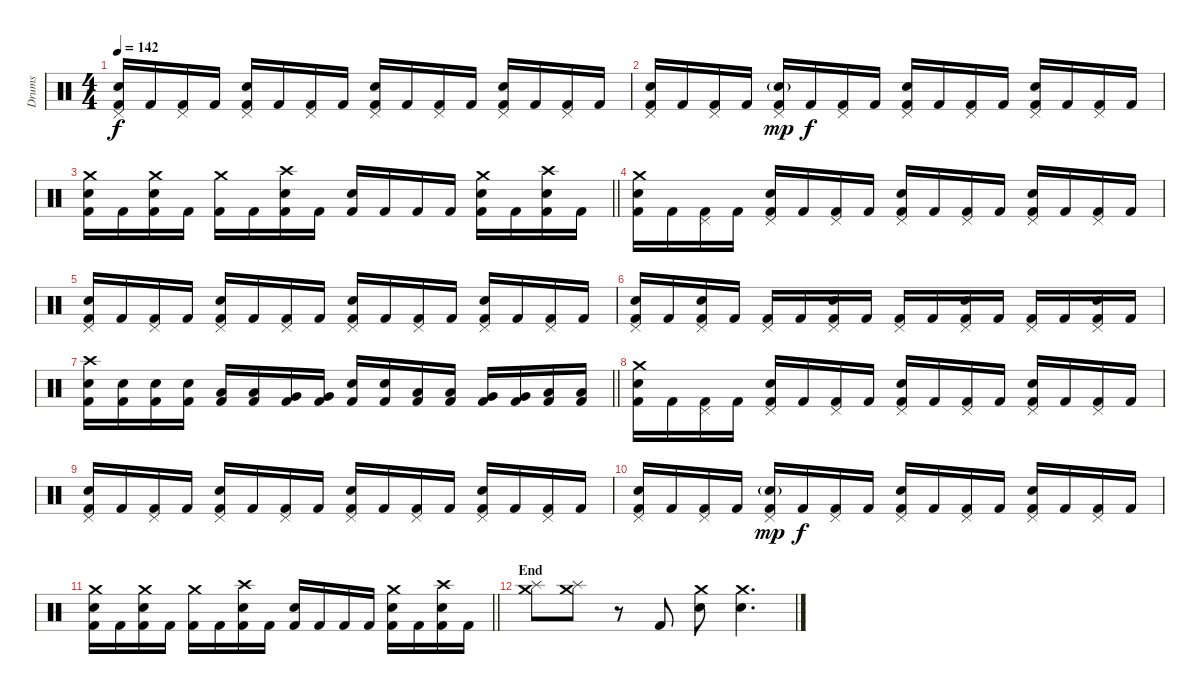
\track ("Drums" "Drums") {instrument percussion}
\staff {score}
\articulation defaults
\ts (4 4)
\tempo 142
\clef neutral
\ks c
("Kick (hit) 2" "Snare (hit) 2" "Pedal Hi-Hat (hit)").16{dy f} "Kick (hit) 2".16 ("Kick (hit) 2" "Pedal Hi-Hat (hit)").16 "Kick (hit) 2".16 ("Kick (hit) 2" "Snare (hit) 2" "Pedal Hi-Hat (hit)").16 "Kick (hit) 2".16 ("Kick (hit) 2" "Pedal Hi-Hat (hit)").16 "Kick (hit) 2".16 ("Kick (hit) 2" "Snare (hit) 2" "Pedal Hi-Hat (hit)").16 "Kick (hit) 2".16 ("Kick (hit) 2" "Pedal Hi-Hat (hit)").16 "Kick (hit) 2".16 ("Kick (hit) 2" "Snare (hit) 2" "Pedal Hi-Hat (hit)").16 "Kick (hit) 2".16 ("Kick (hit) 2" "Pedal Hi-Hat (hit)").16 "Kick (hit) 2".16 |
("Kick (hit) 2" "Snare (hit) 2" "Pedal Hi-Hat (hit)").16 "Kick (hit) 2".16 ("Kick (hit) 2" "Pedal Hi-Hat (hit)").16 "Kick (hit) 2".16 ("Kick (hit) 2" "Snare (hit) 2"{g} "Pedal Hi-Hat (hit)").16{dy mp} "Kick (hit) 2".16{dy f} ("Kick (hit) 2" "Pedal Hi-Hat (hit)").16 "Kick (hit) 2".16 ("Kick (hit) 2" "Snare (hit) 2" "Pedal Hi-Hat (hit)").16 "Kick (hit) 2".16 ("Kick (hit) 2" "Pedal Hi-Hat (hit)").16 "Kick (hit) 2".16 ("Kick (hit) 2" "Snare (hit) 2" "Pedal Hi-Hat (hit)").16 "Kick (hit) 2".16 ("Kick (hit) 2" "Pedal Hi-Hat (hit)").16 "Kick (hit) 2".16 |
\barLineRight lightlight
("Kick (hit) 2" "Snare (hit) 2" "Crash medium (hit)").16 "Kick (hit) 2".16 ("Kick (hit) 2" "Snare (hit) 2" "Crash medium (hit)").16 "Kick (hit) 2".16 ("Kick (hit) 2" "Crash medium (hit)").16 "Kick (hit) 2".16 ("Kick (hit) 2" "Snare (hit) 2" "Crash high (hit)").16 "Kick (hit) 2".16 ("Kick (hit) 2" "Snare (hit) 2").16 "Kick (hit) 2".16 "Kick (hit) 2".16 "Kick (hit) 2".16 ("Kick (hit) 2" "Snare (hit) 2" "Crash medium (hit)").16 "Kick (hit) 2".16 ("Kick (hit) 2" "Snare (hit) 2" "Crash high (hit)").16 "Kick (hit) 2".16 |
\section ("" "")
("Kick (hit) 2" "Snare (hit) 2" "Crash medium (hit)").16 "Kick (hit) 2".16 ("Kick (hit) 2" "Pedal Hi-Hat (hit)").16 "Kick (hit) 2".16 ("Kick (hit) 2" "Snare (hit) 2" "Pedal Hi-Hat (hit)").16 "Kick (hit) 2".16 ("Kick (hit) 2" "Pedal Hi-Hat (hit)").16 "Kick (hit) 2".16 ("Kick (hit) 2" "Snare (hit) 2" "Pedal Hi-Hat (hit)").16 "Kick (hit) 2".16 ("Kick (hit) 2" "Pedal Hi-Hat (hit)").16 "Kick (hit) 2".16 ("Kick (hit) 2" "Snare (hit) 2" "Pedal Hi-Hat (hit)").16 "Kick (hit) 2".16 ("Kick (hit) 2" "Pedal Hi-Hat (hit)").16 "Kick (hit) 2".16 |
("Kick (hit) 2" "Snare (hit) 2" "Pedal Hi-Hat (hit)").16 "Kick (hit) 2".16 ("Kick (hit) 2" "Pedal Hi-Hat (hit)").16 "Kick (hit) 2".16 ("Kick (hit) 2" "Snare (hit) 2" "Pedal Hi-Hat (hit)").16 "Kick (hit) 2".16 ("Kick (hit) 2" "Pedal Hi-Hat (hit)").16 "Kick (hit) 2".16 ("Kick (hit) 2" "Snare (hit) 2" "Pedal Hi-Hat (hit)").16 "Kick (hit) 2".16 ("Kick (hit) 2" "Pedal Hi-Hat (hit)").16 "Kick (hit) 2".16 ("Kick (hit) 2" "Snare (hit) 2" "Pedal Hi-Hat (hit)").16 "Kick (hit) 2".16 ("Kick (hit) 2" "Pedal Hi-Hat (hit)").16 "Kick (hit) 2".16 |
("Kick (hit) 2" "Snare (hit) 2" "Pedal Hi-Hat (hit)").16 "Kick (hit) 2".16 ("Kick (hit) 2" "Snare (hit) 2" "Pedal Hi-Hat (hit)").16 "Kick (hit) 2".16 ("Kick (hit) 2" "Pedal Hi-Hat (hit)").16 "Kick (hit) 2".16 ("Kick (hit) 2" "Snare (hit) 2" "Pedal Hi-Hat (hit)").16 "Kick (hit) 2".16 ("Kick (hit) 2" "Pedal Hi-Hat (hit)").16 "Kick (hit) 2".16 ("Kick (hit) 2" "Snare (hit) 2" "Pedal Hi-Hat (hit)").16 "Kick (hit) 2".16 ("Kick (hit) 2" "Pedal Hi-Hat (hit)").16 "Kick (hit) 2".16 ("Kick (hit) 2" "Snare (hit) 2" "Pedal Hi-Hat (hit)").16 "Kick (hit) 2".16 |
\barLineRight lightlight
("Kick (hit) 2" "Snare (hit) 2" "Crash high (hit)").16 ("Kick (hit) 2" "Snare (hit) 2").16 ("Kick (hit) 2" "Snare (hit) 2").16 ("Kick (hit) 2" "Snare (hit) 2").16 ("Kick (hit) 2" "Low Tom (hit)").16 ("Kick (hit) 2" "Low Tom (hit)").16 ("Kick (hit) 2" "Very Low Tom (hit)").16 ("Kick (hit) 2" "Very Low Tom (hit)").16 ("Kick (hit) 2" "Snare (hit) 2").16 ("Kick (hit) 2" "Snare (hit) 2").16 ("Kick (hit) 2" "Low Tom (hit)").16 ("Kick (hit) 2" "Low Tom (hit)").16 ("Kick (hit) 2" "Very Low Tom (hit)").16 ("Kick (hit) 2" "Very Low Tom (hit)").16 ("Kick (hit) 2" "Low Floor Tom (hit)").16 ("Kick (hit) 2" "Low Floor Tom (hit)").16 |
\section ("" "")
("Kick (hit) 2" "Snare (hit) 2" "Crash medium (hit)").16 "Kick (hit) 2".16 ("Kick (hit) 2" "Pedal Hi-Hat (hit)").16 "Kick (hit) 2".16 ("Kick (hit) 2" "Snare (hit) 2" "Pedal Hi-Hat (hit)").16 "Kick (hit) 2".16 ("Kick (hit) 2" "Pedal Hi-Hat (hit)").16 "Kick (hit) 2".16 ("Kick (hit) 2" "Snare (hit) 2" "Pedal Hi-Hat (hit)").16 "Kick (hit) 2".16 ("Kick (hit) 2" "Pedal Hi-Hat (hit)").16 "Kick (hit) 2".16 ("Kick (hit) 2" "Snare (hit) 2" "Pedal Hi-Hat (hit)").16 "Kick (hit) 2".16 ("Kick (hit) 2" "Pedal Hi-Hat (hit)").16 "Kick (hit) 2".16 |
("Kick (hit) 2" "Snare (hit) 2" "Pedal Hi-Hat (hit)").16 "Kick (hit) 2".16 ("Kick (hit) 2" "Pedal Hi-Hat (hit)").16 "Kick (hit) 2".16 ("Kick (hit) 2" "Snare (hit) 2" "Pedal Hi-Hat (hit)").16 "Kick (hit) 2".16 ("Kick (hit) 2" "Pedal Hi-Hat (hit)").16 "Kick (hit) 2".16 ("Kick (hit) 2" "Snare (hit) 2" "Pedal Hi-Hat (hit)").16 "Kick (hit) 2".16 ("Kick (hit) 2" "Pedal Hi-Hat (hit)").16 "Kick (hit) 2".16 ("Kick (hit) 2" "Snare (hit) 2" "Pedal Hi-Hat (hit)").16 "Kick (hit) 2".16 ("Kick (hit) 2" "Pedal Hi-Hat (hit)").16 "Kick (hit) 2".16 |
("Kick (hit) 2" "Snare (hit) 2" "Pedal Hi-Hat (hit)").16 "Kick (hit) 2".16 ("Kick (hit) 2" "Pedal Hi-Hat (hit)").16 "Kick (hit) 2".16 ("Kick (hit) 2" "Snare (hit) 2"{g} "Pedal Hi-Hat (hit)").16{dy mp} "Kick (hit) 2".16{dy f} ("Kick (hit) 2" "Pedal Hi-Hat (hit)").16 "Kick (hit) 2".16 ("Kick (hit) 2" "Snare (hit) 2" "Pedal Hi-Hat (hit)").16 "Kick (hit) 2".16 ("Kick (hit) 2" "Pedal Hi-Hat (hit)").16 "Kick (hit) 2".16 ("Kick (hit) 2" "Snare (hit) 2" "Pedal Hi-Hat (hit)").16 "Kick (hit) 2".16 ("Kick (hit) 2" "Pedal Hi-Hat (hit)").16 "Kick (hit) 2".16 |
\barLineRight lightlight
("Kick (hit) 2" "Snare (hit) 2" "Crash medium (hit)").16 "Kick (hit) 2".16 ("Kick (hit) 2" "Snare (hit) 2" "Crash medium (hit)").16 "Kick (hit) 2".16 ("Kick (hit) 2" "Crash medium (hit)").16 "Kick (hit) 2".16 ("Kick (hit) 2" "Snare (hit) 2" "Crash high (hit)").16 "Kick (hit) 2".16 ("Kick (hit) 2" "Snare (hit) 2").16 "Kick (hit) 2".16 "Kick (hit) 2".16 "Kick (hit) 2".16 ("Kick (hit) 2" "Snare (hit) 2" "Crash medium (hit)").16 "Kick (hit) 2".16 ("Kick (hit) 2" "Snare (hit) 2" "Crash high (hit)").16 "Kick (hit) 2".16 |
\section ("" "End")
("Splash (hit)" "Crash medium (hit)").8 ("Splash (hit)" "Crash medium (hit)").8 r.8 "Kick (hit) 2".8 ("Snare (hit) 2" "Crash medium (hit)").8 ("Snare (hit) 2" "Crash medium (hit)").4{d}
